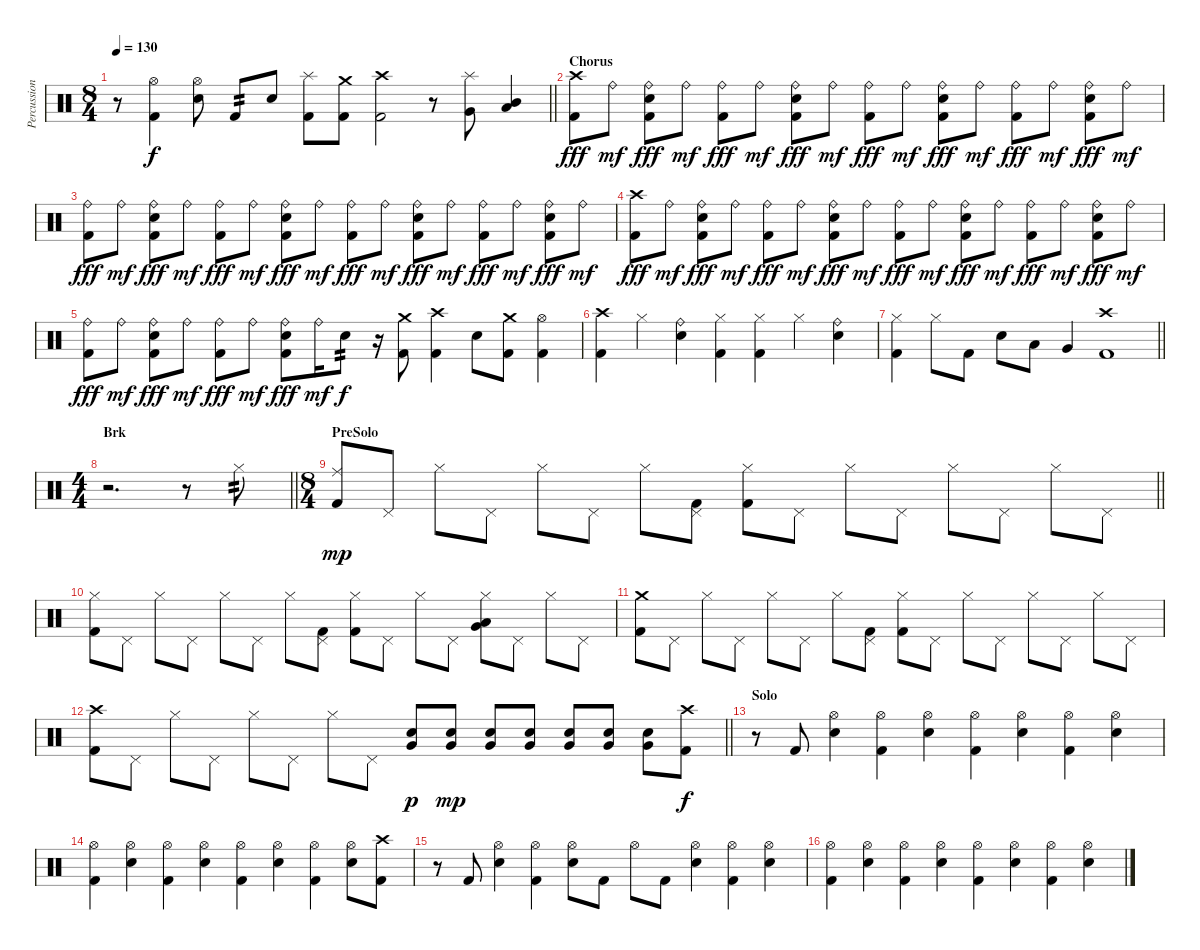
\track ("Percussion" "Percussion") {instrument percussion}
\staff {score}
\articulation defaults
\ts (8 4)
\tempo 130
\clef neutral
\barLineRight lightlight
\ks c
r.8{dy f} ("Hi-Hat (open)" "Kick (hit) 2").4 ("Hi-Hat (open)" "Snare (hit) 2").8 "Kick (hit) 2".8{tp 2} "Snare (hit) 2".8 ("Splash (hit)" "Kick (hit) 2").8 ("Crash medium (hit)" "Kick (hit) 2").8 ("Crash high (hit)" "Kick (hit) 2").2 r.8 ("Splash (hit)" "Very Low Tom (hit)").8 ("Mid Tom (hit)" "Low Tom (hit)").4{bd 120} |
\section ("" "Chorus")
("Crash high (hit)" "Kick (hit) 2").8{dy fff} "Ride (bell)".8{dy mf} ("Ride (bell)" "Snare (hit) 2" "Kick (hit) 2").8{dy fff} "Ride (bell)".8{dy mf} ("Ride (bell)" "Kick (hit) 2").8{dy fff} "Ride (bell)".8{dy mf} ("Ride (bell)" "Snare (hit) 2" "Kick (hit) 2").8{dy fff} "Ride (bell)".8{dy mf} ("Ride (bell)" "Kick (hit) 2").8{dy fff} "Ride (bell)".8{dy mf} ("Ride (bell)" "Snare (hit) 2" "Kick (hit) 2").8{dy fff} "Ride (bell)".8{dy mf} ("Ride (bell)" "Kick (hit) 2").8{dy fff} "Ride (bell)".8{dy mf} ("Ride (bell)" "Snare (hit) 2" "Kick (hit) 2").8{dy fff} "Ride (bell)".8{dy mf} |
("Ride (bell)" "Kick (hit) 2").8{dy fff} "Ride (bell)".8{dy mf} ("Ride (bell)" "Snare (hit) 2" "Kick (hit) 2").8{dy fff} "Ride (bell)".8{dy mf} ("Ride (bell)" "Kick (hit) 2").8{dy fff} "Ride (bell)".8{dy mf} ("Ride (bell)" "Snare (hit) 2" "Kick (hit) 2").8{dy fff} "Ride (bell)".8{dy mf} ("Ride (bell)" "Kick (hit) 2").8{dy fff} "Ride (bell)".8{dy mf} ("Ride (bell)" "Snare (hit) 2" "Kick (hit) 2").8{dy fff} "Ride (bell)".8{dy mf} ("Ride (bell)" "Kick (hit) 2").8{dy fff} "Ride (bell)".8{dy mf} ("Ride (bell)" "Snare (hit) 2" "Kick (hit) 2").8{dy fff} "Ride (bell)".8{dy mf} |
("Crash high (hit)" "Kick (hit) 2").8{dy fff} "Ride (bell)".8{dy mf} ("Ride (bell)" "Snare (hit) 2" "Kick (hit) 2").8{dy fff} "Ride (bell)".8{dy mf} ("Ride (bell)" "Kick (hit) 2").8{dy fff} "Ride (bell)".8{dy mf} ("Ride (bell)" "Snare (hit) 2" "Kick (hit) 2").8{dy fff} "Ride (bell)".8{dy mf} ("Ride (bell)" "Kick (hit) 2").8{dy fff} "Ride (bell)".8{dy mf} ("Ride (bell)" "Snare (hit) 2" "Kick (hit) 2").8{dy fff} "Ride (bell)".8{dy mf} ("Ride (bell)" "Kick (hit) 2").8{dy fff} "Ride (bell)".8{dy mf} ("Ride (bell)" "Snare (hit) 2" "Kick (hit) 2").8{dy fff} "Ride (bell)".8{dy mf} |
("Ride (bell)" "Kick (hit) 2").8{dy fff} "Ride (bell)".8{dy mf} ("Ride (bell)" "Snare (hit) 2" "Kick (hit) 2").8{dy fff} "Ride (bell)".8{dy mf} ("Ride (bell)" "Kick (hit) 2").8{dy fff} "Ride (bell)".8{dy mf} ("Ride (bell)" "Snare (hit) 2" "Kick (hit) 2").8{dy fff} "Ride (bell)".16{dy mf} "Snare (hit) 2".8{tp 2 dy f} r.16 ("Crash medium (hit)" "Kick (hit) 2").8 ("Crash high (hit)" "Kick (hit) 2").4 "Snare (hit) 2".8 ("Crash medium (hit)" "Kick (hit) 2").8 ("Hi-Hat (open)" "Kick (hit) 2").4 |
("Crash high (hit)" "Kick (hit) 2").4 "Hi-Hat (closed)".4 ("Ride (bell)" "Snare (hit) 2").4 ("Hi-Hat (closed)" "Kick (hit) 2").4 ("Hi-Hat (closed)" "Kick (hit) 2").4 "Hi-Hat (closed)".4 ("Ride (bell)" "Snare (hit) 2").4 |
\barLineRight lightlight
("Hi-Hat (closed)" "Kick (hit) 2").4 "Hi-Hat (closed)".8 "Kick (hit) 2".8 "Snare (hit) 2".8 "Low Tom (hit)".8 "Very Low Tom (hit)".4 ("Crash high (hit)" "Kick (hit) 2").1 |
\ts (4 4)
\section ("" "Brk")
\barLineRight lightlight
r.2{d} r.8 "Hi-Hat (closed)".8{tp 2} |
\ts (8 4)
\section ("" "PreSolo")
\barLineRight lightlight
("Ride (middle)" "Kick (hit) 2").8{dy mp} "Pedal Hi-Hat (hit)".8 "Hi-Hat (closed)".8 "Pedal Hi-Hat (hit)".8 "Hi-Hat (closed)".8 "Pedal Hi-Hat (hit)".8 "Hi-Hat (closed)".8 ("Pedal Hi-Hat (hit)" "Kick (hit) 2").8 ("Hi-Hat (closed)" "Kick (hit) 2").8 "Pedal Hi-Hat (hit)".8 "Hi-Hat (closed)".8 "Pedal Hi-Hat (hit)".8 "Hi-Hat (closed)".8 "Pedal Hi-Hat (hit)".8 "Hi-Hat (closed)".8 "Pedal Hi-Hat (hit)".8 |
("Hi-Hat (closed)" "Kick (hit) 2").8 "Pedal Hi-Hat (hit)".8 "Hi-Hat (closed)".8 "Pedal Hi-Hat (hit)".8 "Hi-Hat (closed)".8 "Pedal Hi-Hat (hit)".8 "Hi-Hat (closed)".8 ("Pedal Hi-Hat (hit)" "Kick (hit) 2").8 ("Hi-Hat (closed)" "Kick (hit) 2").8 "Pedal Hi-Hat (hit)".8 "Hi-Hat (closed)".8 "Pedal Hi-Hat (hit)".8 ("Hi-Hat (closed)" "Very Low Tom (hit)" "Low Tom (hit)").8 "Pedal Hi-Hat (hit)".8 "Hi-Hat (closed)".8 "Pedal Hi-Hat (hit)".8 |
("Crash medium (hit)" "Kick (hit) 2").8 "Pedal Hi-Hat (hit)".8 "Hi-Hat (closed)".8 "Pedal Hi-Hat (hit)".8 "Hi-Hat (closed)".8 "Pedal Hi-Hat (hit)".8 "Hi-Hat (closed)".8 ("Pedal Hi-Hat (hit)" "Kick (hit) 2").8 ("Hi-Hat (closed)" "Kick (hit) 2").8 "Pedal Hi-Hat (hit)".8 "Hi-Hat (closed)".8 "Pedal Hi-Hat (hit)".8 "Hi-Hat (closed)".8 "Pedal Hi-Hat (hit)".8 "Hi-Hat (closed)".8 "Pedal Hi-Hat (hit)".8 |
\barLineRight lightlight
("Crash high (hit)" "Kick (hit) 2").8 "Pedal Hi-Hat (hit)".8 "Hi-Hat (closed)".8 "Pedal Hi-Hat (hit)".8 "Hi-Hat (closed)".8 "Pedal Hi-Hat (hit)".8 "Hi-Hat (closed)".8 "Pedal Hi-Hat (hit)".8 ("Very Low Tom (hit)" "Snare (hit) 2").8{dy p} ("Very Low Tom (hit)" "Snare (hit) 2").8{dy mp} ("Very Low Tom (hit)" "Snare (hit) 2").8 ("Very Low Tom (hit)" "Snare (hit) 2").8 ("Very Low Tom (hit)" "Snare (hit) 2").8 ("Very Low Tom (hit)" "Snare (hit) 2").8 ("Very Low Tom (hit)" "Snare (hit) 2").8 ("Crash high (hit)" "Kick (hit) 2").8{dy f} |
\section ("" "Solo")
r.8 "Kick (hit) 2".8 ("Hi-Hat (open)" "Snare (hit) 2").4 ("Hi-Hat (open)" "Kick (hit) 2").4 ("Hi-Hat (open)" "Snare (hit) 2").4 ("Hi-Hat (open)" "Kick (hit) 2").4 ("Hi-Hat (open)" "Snare (hit) 2").4 ("Hi-Hat (open)" "Kick (hit) 2").4 ("Hi-Hat (open)" "Snare (hit) 2").4 |
("Hi-Hat (open)" "Kick (hit) 2").4 ("Hi-Hat (open)" "Snare (hit) 2").4 ("Hi-Hat (open)" "Kick (hit) 2").4 ("Hi-Hat (open)" "Snare (hit) 2").4 ("Hi-Hat (open)" "Kick (hit) 2").4 ("Hi-Hat (open)" "Snare (hit) 2").4 ("Hi-Hat (open)" "Kick (hit) 2").4 ("Hi-Hat (open)" "Snare (hit) 2").8 ("Crash high (hit)" "Kick (hit) 2").8 |
r.8 "Kick (hit) 2".8 ("Hi-Hat (open)" "Snare (hit) 2").4 ("Hi-Hat (open)" "Kick (hit) 2").4 ("Hi-Hat (open)" "Snare (hit) 2").8 "Kick (hit) 2".8 "Hi-Hat (open)".8 "Kick (hit) 2".8 ("Hi-Hat (open)" "Snare (hit) 2").4 ("Hi-Hat (open)" "Kick (hit) 2").4 ("Hi-Hat (open)" "Snare (hit) 2").4 |
("Hi-Hat (open)" "Kick (hit) 2").4 ("Hi-Hat (open)" "Snare (hit) 2").4 ("Hi-Hat (open)" "Kick (hit) 2").4 ("Hi-Hat (open)" "Snare (hit) 2").4 ("Hi-Hat (open)" "Kick (hit) 2").4 ("Hi-Hat (open)" "Snare (hit) 2").4 ("Hi-Hat (open)" "Kick (hit) 2").4 ("Hi-Hat (open)" "Snare (hit) 2").4
